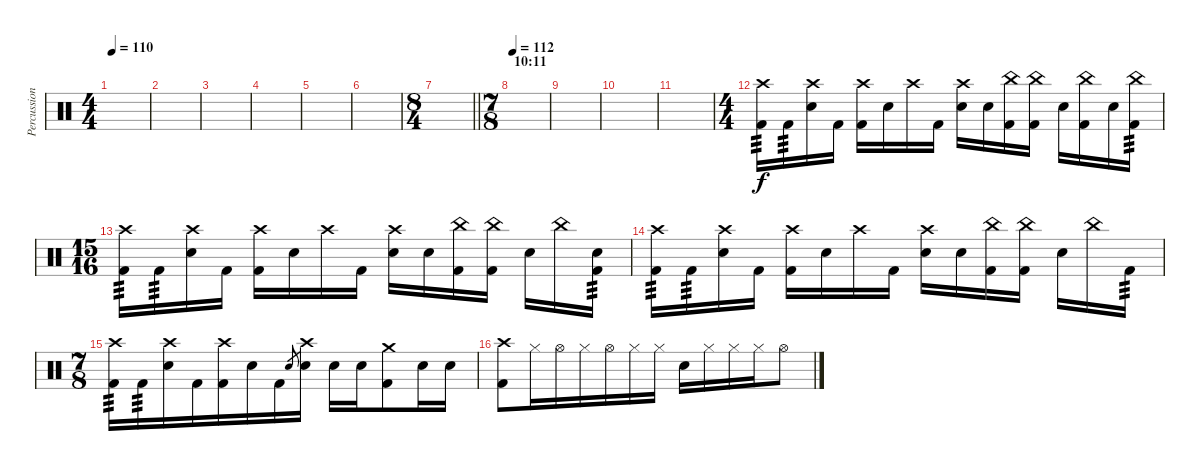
\track ("Percussion" "Percussion") {instrument percussion}
\staff {score}
\articulation defaults
\ts (4 4)
\tempo 110
\clef neutral
\ks c
|
|
|
|
|
|
\ts (8 4)
\barLineRight lightlight
|
\ts (7 8)
\section ("" "10:11")
\tempo 115
\tempo 112
|
|
|
|
\ts (4 4)
("Crash high (hit)" "Kick (hit) 2").16{tp 3 volume 14} "Kick (hit) 2".16{tp 3} ("Crash high (hit)" "Electric Snare (hit)").16 "Kick (hit) 2".16 ("Kick (hit) 2" "Crash high (hit)").16 "Electric Snare (hit)".16 "Crash high (hit)".16 "Kick (hit) 2".16 ("Crash high (hit)" "Electric Snare (hit)").16 "Electric Snare (hit)".16 ("China (hit)" "Kick (hit) 2").16 ("China (hit)" "Kick (hit) 2").16 "Electric Snare (hit)".16 ("Kick (hit) 2" "China (hit)").16 "Electric Snare (hit)".16 ("Kick (hit) 2" "China (hit)").16{tp 3} |
\ts (15 16)
("Crash high (hit)" "Kick (hit) 2").16{tp 3} "Kick (hit) 2".16{tp 3} ("Crash high (hit)" "Electric Snare (hit)").16 "Kick (hit) 2".16 ("Kick (hit) 2" "Crash high (hit)").16 "Electric Snare (hit)".16 "Crash high (hit)".16 "Kick (hit) 2".16 ("Crash high (hit)" "Electric Snare (hit)").16 "Electric Snare (hit)".16 ("China (hit)" "Kick (hit) 2").16 ("China (hit)" "Kick (hit) 2").16 "Electric Snare (hit)".16 "China (hit)".16 ("Kick (hit) 2" "Electric Snare (hit)").16{tp 3} |
("Crash high (hit)" "Kick (hit) 2").16{tp 3} "Kick (hit) 2".16{tp 3} ("Crash high (hit)" "Electric Snare (hit)").16 "Kick (hit) 2".16 ("Kick (hit) 2" "Crash high (hit)").16 "Electric Snare (hit)".16 "Crash high (hit)".16 "Kick (hit) 2".16 ("Crash high (hit)" "Electric Snare (hit)").16 "Electric Snare (hit)".16 ("China (hit)" "Kick (hit) 2").16 ("China (hit)" "Kick (hit) 2").16 "Electric Snare (hit)".16 "China (hit)".16 "Kick (hit) 2".16{tp 3} |
\ts (7 8)
("Crash high (hit)" "Kick (hit) 2").16{tp 3} "Kick (hit) 2".16{tp 3} ("Crash high (hit)" "Electric Snare (hit)").16 "Kick (hit) 2".16 ("Kick (hit) 2" "Crash high (hit)").16 "Electric Snare (hit)".16 "Kick (hit) 2".16 "Electric Snare (hit)".8{gr} ("Crash high (hit)" "Electric Snare (hit)").16 "Electric Snare (hit)".16 "Electric Snare (hit)".16 ("Crash medium (hit)" "Kick (hit) 2").8 "Electric Snare (hit)".16 "Electric Snare (hit)".16 |
("Crash high (hit)" "Kick (hit) 2").8 "Hi-Hat (closed)".16 "Hi-Hat (open)".16 "Hi-Hat (closed)".16 "Hi-Hat (open)".16 "Hi-Hat (closed)".16 "Hi-Hat (closed)".16 "Electric Snare (hit)".16 "Hi-Hat (closed)".16 "Hi-Hat (closed)".16 "Hi-Hat (closed)".16 "Hi-Hat (open)".8
